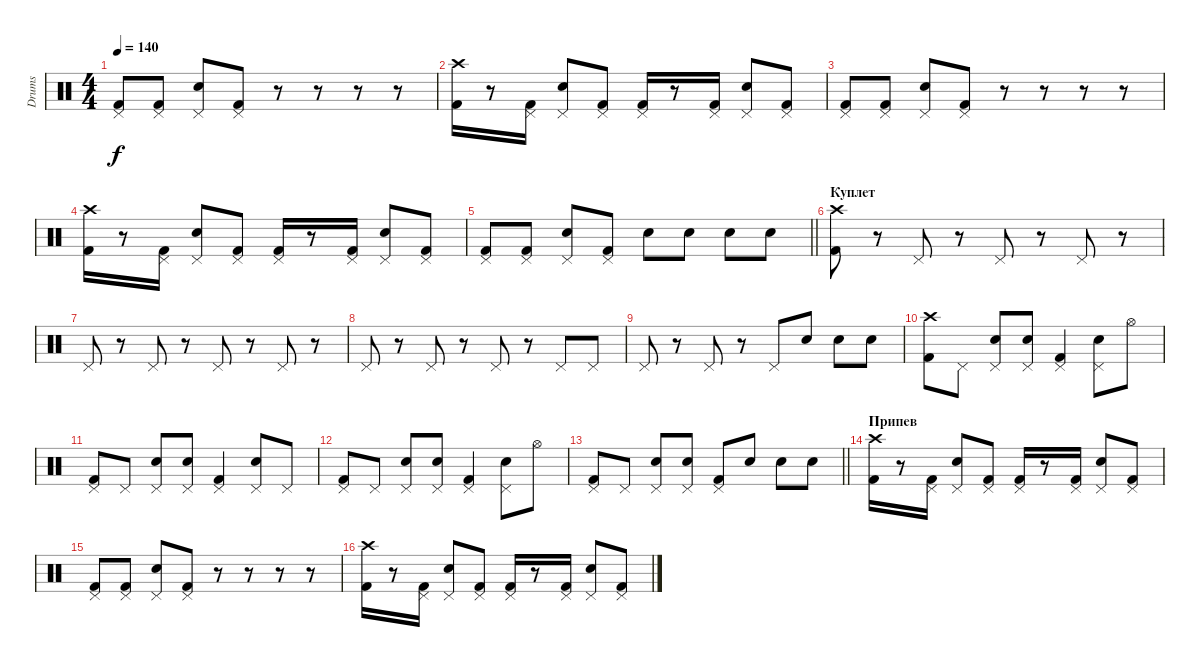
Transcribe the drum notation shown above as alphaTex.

\track ("Drums" "Drums") {instrument percussion}
\staff {score}
\articulation defaults
\ts (4 4)
\tempo 140
\clef neutral
\ks c
("Kick (hit) 2" "Pedal Hi-Hat (hit)").8{dy f} ("Kick (hit) 2" "Pedal Hi-Hat (hit)").8 ("Snare (hit) 2" "Pedal Hi-Hat (hit)").8 ("Kick (hit) 2" "Pedal Hi-Hat (hit)").8 r.8 r.8 r.8 r.8 |
("Kick (hit) 2" "Crash high (hit)").16 r.8 ("Kick (hit) 2" "Pedal Hi-Hat (hit)").16 ("Snare (hit) 2" "Pedal Hi-Hat (hit)").8 ("Kick (hit) 2" "Pedal Hi-Hat (hit)").8 ("Kick (hit) 2" "Pedal Hi-Hat (hit)").16 r.8 ("Kick (hit) 2" "Pedal Hi-Hat (hit)").16 ("Snare (hit) 2" "Pedal Hi-Hat (hit)").8 ("Kick (hit) 2" "Pedal Hi-Hat (hit)").8 |
("Kick (hit) 2" "Pedal Hi-Hat (hit)").8 ("Kick (hit) 2" "Pedal Hi-Hat (hit)").8 ("Snare (hit) 2" "Pedal Hi-Hat (hit)").8 ("Kick (hit) 2" "Pedal Hi-Hat (hit)").8 r.8 r.8 r.8 r.8 |
("Kick (hit) 2" "Crash high (hit)").16 r.8 ("Kick (hit) 2" "Pedal Hi-Hat (hit)").16 ("Snare (hit) 2" "Pedal Hi-Hat (hit)").8 ("Kick (hit) 2" "Pedal Hi-Hat (hit)").8 ("Kick (hit) 2" "Pedal Hi-Hat (hit)").16 r.8 ("Kick (hit) 2" "Pedal Hi-Hat (hit)").16 ("Snare (hit) 2" "Pedal Hi-Hat (hit)").8 ("Kick (hit) 2" "Pedal Hi-Hat (hit)").8 |
\barLineRight lightlight
("Kick (hit) 2" "Pedal Hi-Hat (hit)").8 ("Kick (hit) 2" "Pedal Hi-Hat (hit)").8 ("Snare (hit) 2" "Pedal Hi-Hat (hit)").8 ("Kick (hit) 2" "Pedal Hi-Hat (hit)").8 "Snare (hit) 2".8 "Snare (hit) 2".8 "Snare (hit) 2".8 "Snare (hit) 2".8 |
\section ("" "Куплет")
("Crash high (hit)" "Kick (hit) 2").8 r.8 "Pedal Hi-Hat (hit)".8 r.8 "Pedal Hi-Hat (hit)".8 r.8 "Pedal Hi-Hat (hit)".8 r.8 |
"Pedal Hi-Hat (hit)".8 r.8 "Pedal Hi-Hat (hit)".8 r.8 "Pedal Hi-Hat (hit)".8 r.8 "Pedal Hi-Hat (hit)".8 r.8 |
"Pedal Hi-Hat (hit)".8 r.8 "Pedal Hi-Hat (hit)".8 r.8 "Pedal Hi-Hat (hit)".8 r.8 "Pedal Hi-Hat (hit)".8 "Pedal Hi-Hat (hit)".8 |
"Pedal Hi-Hat (hit)".8 r.8 "Pedal Hi-Hat (hit)".8 r.8 "Pedal Hi-Hat (hit)".8 "Snare (hit) 2".8 "Snare (hit) 2".8 "Snare (hit) 2".8 |
("Crash high (hit)" "Kick (hit) 2").8 "Pedal Hi-Hat (hit)".8 ("Snare (hit) 2" "Pedal Hi-Hat (hit)").8 ("Snare (hit) 2" "Pedal Hi-Hat (hit)").8 ("Kick (hit) 2" "Pedal Hi-Hat (hit)").4 ("Snare (hit) 2" "Pedal Hi-Hat (hit)").8 "Hi-Hat (open)".8 |
("Kick (hit) 2" "Pedal Hi-Hat (hit)").8 "Pedal Hi-Hat (hit)".8 ("Snare (hit) 2" "Pedal Hi-Hat (hit)").8 ("Snare (hit) 2" "Pedal Hi-Hat (hit)").8 ("Kick (hit) 2" "Pedal Hi-Hat (hit)").4 ("Snare (hit) 2" "Pedal Hi-Hat (hit)").8 "Pedal Hi-Hat (hit)".8 |
("Kick (hit) 2" "Pedal Hi-Hat (hit)").8 "Pedal Hi-Hat (hit)".8 ("Snare (hit) 2" "Pedal Hi-Hat (hit)").8 ("Snare (hit) 2" "Pedal Hi-Hat (hit)").8 ("Kick (hit) 2" "Pedal Hi-Hat (hit)").4 ("Snare (hit) 2" "Pedal Hi-Hat (hit)").8 "Hi-Hat (open)".8 |
\barLineRight lightlight
("Kick (hit) 2" "Pedal Hi-Hat (hit)").8 "Pedal Hi-Hat (hit)".8 ("Snare (hit) 2" "Pedal Hi-Hat (hit)").8 ("Snare (hit) 2" "Pedal Hi-Hat (hit)").8 ("Kick (hit) 2" "Pedal Hi-Hat (hit)").8 "Snare (hit) 2".8 "Snare (hit) 2".8 "Snare (hit) 2".8 |
\section ("" "Припев")
("Kick (hit) 2" "Crash high (hit)").16 r.8 ("Kick (hit) 2" "Pedal Hi-Hat (hit)").16 ("Snare (hit) 2" "Pedal Hi-Hat (hit)").8 ("Kick (hit) 2" "Pedal Hi-Hat (hit)").8 ("Kick (hit) 2" "Pedal Hi-Hat (hit)").16 r.8 ("Kick (hit) 2" "Pedal Hi-Hat (hit)").16 ("Snare (hit) 2" "Pedal Hi-Hat (hit)").8 ("Kick (hit) 2" "Pedal Hi-Hat (hit)").8 |
("Kick (hit) 2" "Pedal Hi-Hat (hit)").8 ("Kick (hit) 2" "Pedal Hi-Hat (hit)").8 ("Snare (hit) 2" "Pedal Hi-Hat (hit)").8 ("Kick (hit) 2" "Pedal Hi-Hat (hit)").8 r.8 r.8 r.8 r.8 |
("Kick (hit) 2" "Crash high (hit)").16 r.8 ("Kick (hit) 2" "Pedal Hi-Hat (hit)").16 ("Snare (hit) 2" "Pedal Hi-Hat (hit)").8 ("Kick (hit) 2" "Pedal Hi-Hat (hit)").8 ("Kick (hit) 2" "Pedal Hi-Hat (hit)").16 r.8 ("Kick (hit) 2" "Pedal Hi-Hat (hit)").16 ("Snare (hit) 2" "Pedal Hi-Hat (hit)").8 ("Kick (hit) 2" "Pedal Hi-Hat (hit)").8
